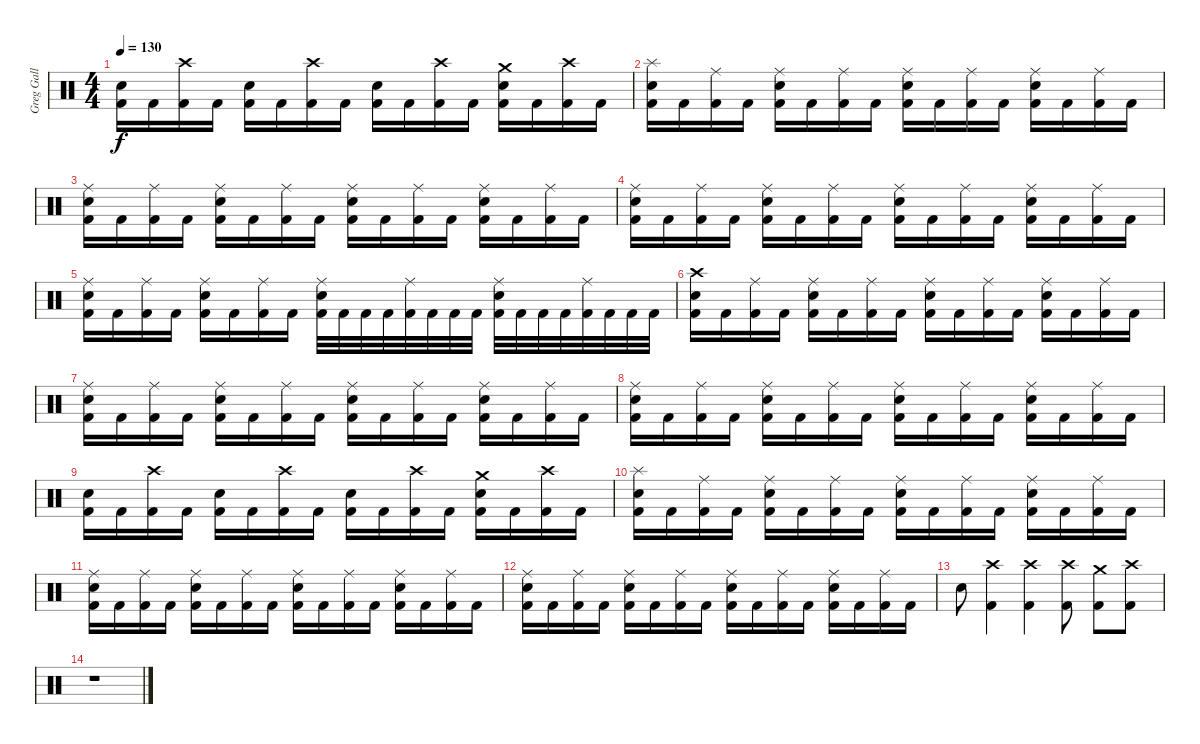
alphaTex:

\track ("Greg Gall" "Greg Gall") {instrument percussion}
\staff {score}
\articulation defaults
\ts (4 4)
\tempo 130
\clef neutral
\ks c
("Electric Snare (hit)" "Kick (hit) 2").16{dy f} "Kick (hit) 2".16 ("Crash high (hit)" "Kick (hit) 2").16 "Kick (hit) 2".16 ("Electric Snare (hit)" "Kick (hit) 2").16 "Kick (hit) 2".16 ("Crash high (hit)" "Kick (hit) 2").16 "Kick (hit) 2".16 ("Electric Snare (hit)" "Kick (hit) 2").16 "Kick (hit) 2".16 ("Crash high (hit)" "Kick (hit) 2").16 "Kick (hit) 2".16 ("Crash medium (hit)" "Electric Snare (hit)" "Kick (hit) 2").16 "Kick (hit) 2".16 ("Crash high (hit)" "Kick (hit) 2").16 "Kick (hit) 2".16 |
("Splash (hit)" "Electric Snare (hit)" "Kick (hit) 2").16 "Kick (hit) 2".16 ("Ride (middle)" "Kick (hit) 2").16 "Kick (hit) 2".16 ("Ride (middle)" "Electric Snare (hit)" "Kick (hit) 2").16 "Kick (hit) 2".16 ("Ride (middle)" "Kick (hit) 2").16 "Kick (hit) 2".16 ("Ride (middle)" "Electric Snare (hit)" "Kick (hit) 2").16 "Kick (hit) 2".16 ("Ride (middle)" "Kick (hit) 2").16 "Kick (hit) 2".16 ("Ride (middle)" "Electric Snare (hit)" "Kick (hit) 2").16 "Kick (hit) 2".16 ("Ride (middle)" "Kick (hit) 2").16 "Kick (hit) 2".16 |
("Ride (middle)" "Electric Snare (hit)" "Kick (hit) 2").16 "Kick (hit) 2".16 ("Ride (middle)" "Kick (hit) 2").16 "Kick (hit) 2".16 ("Ride (middle)" "Electric Snare (hit)" "Kick (hit) 2").16 "Kick (hit) 2".16 ("Ride (middle)" "Kick (hit) 2").16 "Kick (hit) 2".16 ("Ride (middle)" "Electric Snare (hit)" "Kick (hit) 2").16 "Kick (hit) 2".16 ("Ride (middle)" "Kick (hit) 2").16 "Kick (hit) 2".16 ("Ride (middle)" "Electric Snare (hit)" "Kick (hit) 2").16 "Kick (hit) 2".16 ("Ride (middle)" "Kick (hit) 2").16 "Kick (hit) 2".16 |
("Ride (middle)" "Electric Snare (hit)" "Kick (hit) 2").16 "Kick (hit) 2".16 ("Ride (middle)" "Kick (hit) 2").16 "Kick (hit) 2".16 ("Ride (middle)" "Electric Snare (hit)" "Kick (hit) 2").16 "Kick (hit) 2".16 ("Ride (middle)" "Kick (hit) 2").16 "Kick (hit) 2".16 ("Ride (middle)" "Electric Snare (hit)" "Kick (hit) 2").16 "Kick (hit) 2".16 ("Ride (middle)" "Kick (hit) 2").16 "Kick (hit) 2".16 ("Ride (middle)" "Electric Snare (hit)" "Kick (hit) 2").16 "Kick (hit) 2".16 ("Ride (middle)" "Kick (hit) 2").16 "Kick (hit) 2".16 |
("Ride (middle)" "Electric Snare (hit)" "Kick (hit) 2").16 "Kick (hit) 2".16 ("Ride (middle)" "Kick (hit) 2").16 "Kick (hit) 2".16 ("Ride (middle)" "Electric Snare (hit)" "Kick (hit) 2").16 "Kick (hit) 2".16 ("Ride (middle)" "Kick (hit) 2").16 "Kick (hit) 2".16 ("Ride (middle)" "Electric Snare (hit)" "Kick (hit) 2").32 "Kick (hit) 2".32 "Kick (hit) 2".32 "Kick (hit) 2".32 ("Ride (middle)" "Kick (hit) 2").32 "Kick (hit) 2".32 "Kick (hit) 2".32 "Kick (hit) 2".32 ("Ride (middle)" "Electric Snare (hit)" "Kick (hit) 2").32 "Kick (hit) 2".32 "Kick (hit) 2".32 "Kick (hit) 2".32 ("Ride (middle)" "Kick (hit) 2").32 "Kick (hit) 2".32 "Kick (hit) 2".32 "Kick (hit) 2".32 |
("Crash high (hit)" "Electric Snare (hit)" "Kick (hit) 2").16 "Kick (hit) 2".16 ("Ride (middle)" "Kick (hit) 2").16 "Kick (hit) 2".16 ("Ride (middle)" "Electric Snare (hit)" "Kick (hit) 2").16 "Kick (hit) 2".16 ("Ride (middle)" "Kick (hit) 2").16 "Kick (hit) 2".16 ("Ride (middle)" "Electric Snare (hit)" "Kick (hit) 2").16 "Kick (hit) 2".16 ("Ride (middle)" "Kick (hit) 2").16 "Kick (hit) 2".16 ("Ride (middle)" "Electric Snare (hit)" "Kick (hit) 2").16 "Kick (hit) 2".16 ("Ride (middle)" "Kick (hit) 2").16 "Kick (hit) 2".16 |
("Ride (middle)" "Electric Snare (hit)" "Kick (hit) 2").16 "Kick (hit) 2".16 ("Ride (middle)" "Kick (hit) 2").16 "Kick (hit) 2".16 ("Ride (middle)" "Electric Snare (hit)" "Kick (hit) 2").16 "Kick (hit) 2".16 ("Ride (middle)" "Kick (hit) 2").16 "Kick (hit) 2".16 ("Ride (middle)" "Electric Snare (hit)" "Kick (hit) 2").16 "Kick (hit) 2".16 ("Ride (middle)" "Kick (hit) 2").16 "Kick (hit) 2".16 ("Ride (middle)" "Electric Snare (hit)" "Kick (hit) 2").16 "Kick (hit) 2".16 ("Ride (middle)" "Kick (hit) 2").16 "Kick (hit) 2".16 |
("Ride (middle)" "Electric Snare (hit)" "Kick (hit) 2").16 "Kick (hit) 2".16 ("Ride (middle)" "Kick (hit) 2").16 "Kick (hit) 2".16 ("Ride (middle)" "Electric Snare (hit)" "Kick (hit) 2").16 "Kick (hit) 2".16 ("Ride (middle)" "Kick (hit) 2").16 "Kick (hit) 2".16 ("Ride (middle)" "Electric Snare (hit)" "Kick (hit) 2").16 "Kick (hit) 2".16 ("Ride (middle)" "Kick (hit) 2").16 "Kick (hit) 2".16 ("Ride (middle)" "Electric Snare (hit)" "Kick (hit) 2").16 "Kick (hit) 2".16 ("Ride (middle)" "Kick (hit) 2").16 "Kick (hit) 2".16 |
("Electric Snare (hit)" "Kick (hit) 2").16 "Kick (hit) 2".16 ("Crash high (hit)" "Kick (hit) 2").16 "Kick (hit) 2".16 ("Electric Snare (hit)" "Kick (hit) 2").16 "Kick (hit) 2".16 ("Crash high (hit)" "Kick (hit) 2").16 "Kick (hit) 2".16 ("Electric Snare (hit)" "Kick (hit) 2").16 "Kick (hit) 2".16 ("Crash high (hit)" "Kick (hit) 2").16 "Kick (hit) 2".16 ("Crash medium (hit)" "Electric Snare (hit)" "Kick (hit) 2").16 "Kick (hit) 2".16 ("Crash high (hit)" "Kick (hit) 2").16 "Kick (hit) 2".16 |
("Splash (hit)" "Electric Snare (hit)" "Kick (hit) 2").16 "Kick (hit) 2".16 ("Ride (middle)" "Kick (hit) 2").16 "Kick (hit) 2".16 ("Ride (middle)" "Electric Snare (hit)" "Kick (hit) 2").16 "Kick (hit) 2".16 ("Ride (middle)" "Kick (hit) 2").16 "Kick (hit) 2".16 ("Ride (middle)" "Electric Snare (hit)" "Kick (hit) 2").16 "Kick (hit) 2".16 ("Ride (middle)" "Kick (hit) 2").16 "Kick (hit) 2".16 ("Ride (middle)" "Electric Snare (hit)" "Kick (hit) 2").16 "Kick (hit) 2".16 ("Ride (middle)" "Kick (hit) 2").16 "Kick (hit) 2".16 |
("Ride (middle)" "Electric Snare (hit)" "Kick (hit) 2").16 "Kick (hit) 2".16 ("Ride (middle)" "Kick (hit) 2").16 "Kick (hit) 2".16 ("Ride (middle)" "Electric Snare (hit)" "Kick (hit) 2").16 "Kick (hit) 2".16 ("Ride (middle)" "Kick (hit) 2").16 "Kick (hit) 2".16 ("Ride (middle)" "Electric Snare (hit)" "Kick (hit) 2").16 "Kick (hit) 2".16 ("Ride (middle)" "Kick (hit) 2").16 "Kick (hit) 2".16 ("Ride (middle)" "Electric Snare (hit)" "Kick (hit) 2").16 "Kick (hit) 2".16 ("Ride (middle)" "Kick (hit) 2").16 "Kick (hit) 2".16 |
("Ride (middle)" "Electric Snare (hit)" "Kick (hit) 2").16 "Kick (hit) 2".16 ("Ride (middle)" "Kick (hit) 2").16 "Kick (hit) 2".16 ("Ride (middle)" "Electric Snare (hit)" "Kick (hit) 2").16 "Kick (hit) 2".16 ("Ride (middle)" "Kick (hit) 2").16 "Kick (hit) 2".16 ("Ride (middle)" "Electric Snare (hit)" "Kick (hit) 2").16 "Kick (hit) 2".16 ("Ride (middle)" "Kick (hit) 2").16 "Kick (hit) 2".16 ("Ride (middle)" "Electric Snare (hit)" "Kick (hit) 2").16 "Kick (hit) 2".16 ("Ride (middle)" "Kick (hit) 2").16 "Kick (hit) 2".16 |
"Electric Snare (hit)".8 ("Crash high (hit)" "Kick (hit) 2").4 ("Crash high (hit)" "Kick (hit) 2").4 ("Crash high (hit)" "Kick (hit) 2").8 ("Crash medium (hit)" "Kick (hit) 2").8 ("Crash high (hit)" "Kick (hit) 2").8 |
r.1
